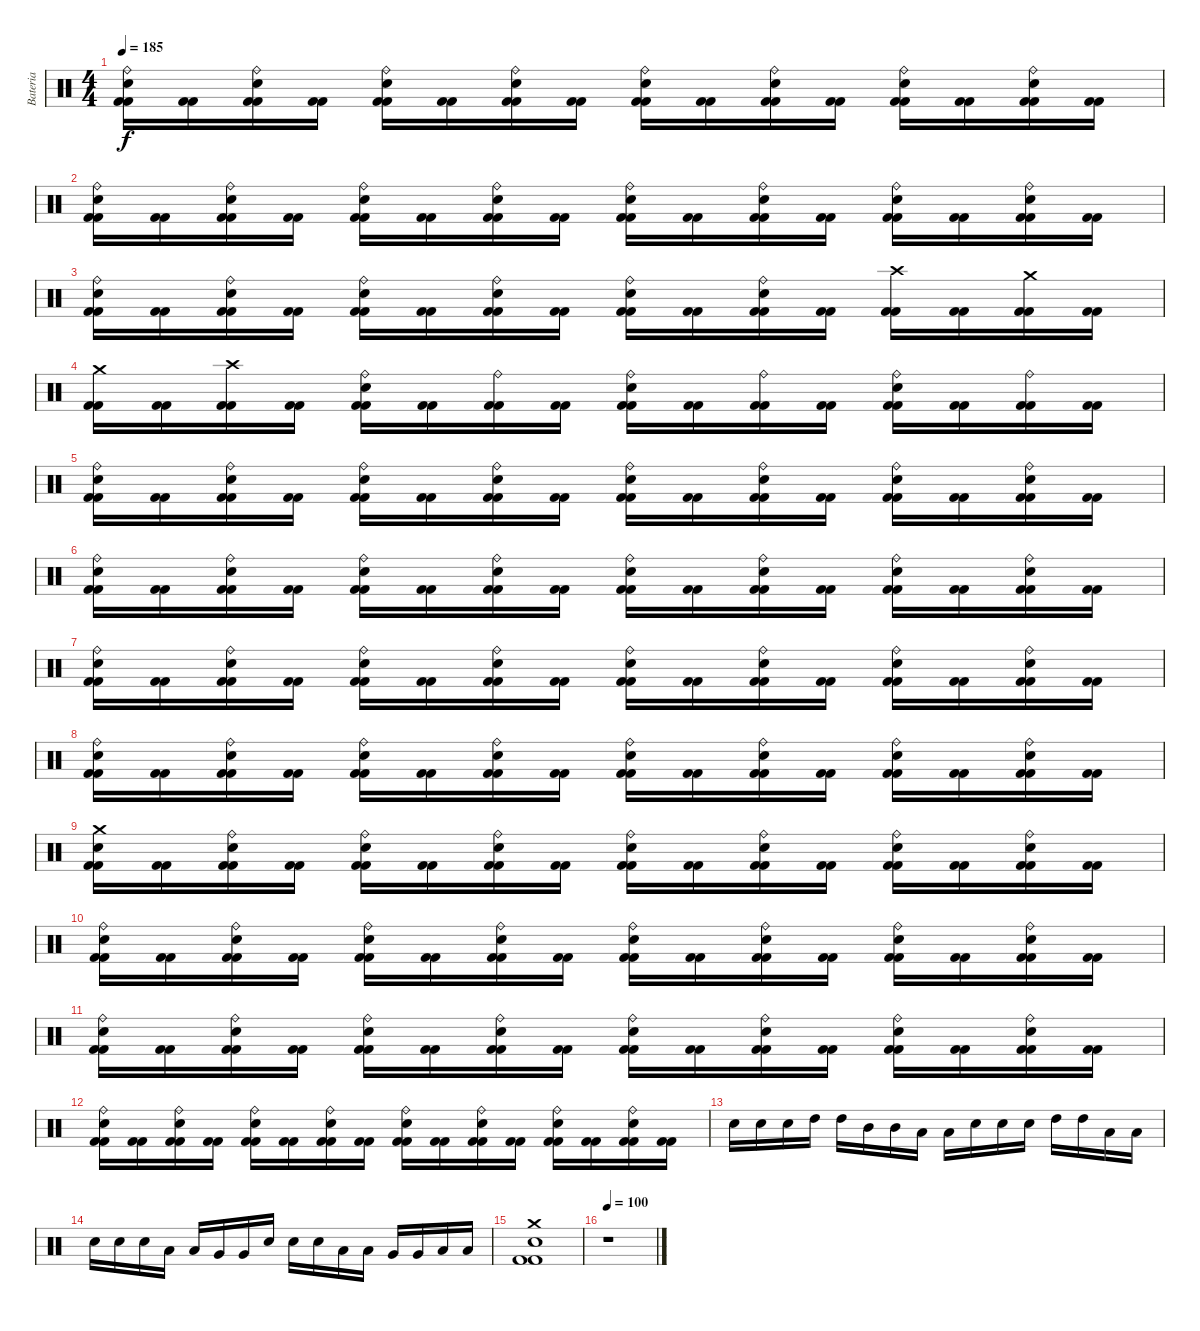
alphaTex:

\track ("Bateria" "Bateria") {instrument percussion}
\staff {score}
\articulation defaults
\ts (4 4)
\tempo 185
\clef neutral
\ks c
("Kick (hit) 2" "Kick (hit) 2" "Electric Snare (hit)" "Ride (bell)").16{dy f} ("Kick (hit) 2" "Kick (hit) 2").16 ("Kick (hit) 2" "Kick (hit) 2" "Ride (bell)" "Electric Snare (hit)").16 ("Kick (hit) 2" "Kick (hit) 2").16 ("Kick (hit) 2" "Kick (hit) 2" "Electric Snare (hit)" "Ride (bell)").16 ("Kick (hit) 2" "Kick (hit) 2").16 ("Kick (hit) 2" "Kick (hit) 2" "Ride (bell)" "Electric Snare (hit)").16 ("Kick (hit) 2" "Kick (hit) 2").16 ("Kick (hit) 2" "Kick (hit) 2" "Electric Snare (hit)" "Ride (bell)").16 ("Kick (hit) 2" "Kick (hit) 2").16 ("Kick (hit) 2" "Kick (hit) 2" "Ride (bell)" "Electric Snare (hit)").16 ("Kick (hit) 2" "Kick (hit) 2").16 ("Kick (hit) 2" "Kick (hit) 2" "Electric Snare (hit)" "Ride (bell)").16 ("Kick (hit) 2" "Kick (hit) 2").16 ("Kick (hit) 2" "Kick (hit) 2" "Ride (bell)" "Electric Snare (hit)").16 ("Kick (hit) 2" "Kick (hit) 2").16 |
("Kick (hit) 2" "Kick (hit) 2" "Electric Snare (hit)" "Ride (bell)").16 ("Kick (hit) 2" "Kick (hit) 2").16 ("Kick (hit) 2" "Kick (hit) 2" "Ride (bell)" "Electric Snare (hit)").16 ("Kick (hit) 2" "Kick (hit) 2").16 ("Kick (hit) 2" "Kick (hit) 2" "Electric Snare (hit)" "Ride (bell)").16 ("Kick (hit) 2" "Kick (hit) 2").16 ("Kick (hit) 2" "Kick (hit) 2" "Ride (bell)" "Electric Snare (hit)").16 ("Kick (hit) 2" "Kick (hit) 2").16 ("Kick (hit) 2" "Kick (hit) 2" "Electric Snare (hit)" "Ride (bell)").16 ("Kick (hit) 2" "Kick (hit) 2").16 ("Kick (hit) 2" "Kick (hit) 2" "Ride (bell)" "Electric Snare (hit)").16 ("Kick (hit) 2" "Kick (hit) 2").16 ("Kick (hit) 2" "Kick (hit) 2" "Electric Snare (hit)" "Ride (bell)").16 ("Kick (hit) 2" "Kick (hit) 2").16 ("Kick (hit) 2" "Kick (hit) 2" "Ride (bell)" "Electric Snare (hit)").16 ("Kick (hit) 2" "Kick (hit) 2").16 |
("Kick (hit) 2" "Kick (hit) 2" "Electric Snare (hit)" "Ride (bell)").16 ("Kick (hit) 2" "Kick (hit) 2").16 ("Kick (hit) 2" "Kick (hit) 2" "Ride (bell)" "Electric Snare (hit)").16 ("Kick (hit) 2" "Kick (hit) 2").16 ("Kick (hit) 2" "Kick (hit) 2" "Electric Snare (hit)" "Ride (bell)").16 ("Kick (hit) 2" "Kick (hit) 2").16 ("Kick (hit) 2" "Kick (hit) 2" "Ride (bell)" "Electric Snare (hit)").16 ("Kick (hit) 2" "Kick (hit) 2").16 ("Kick (hit) 2" "Kick (hit) 2" "Electric Snare (hit)" "Ride (bell)").16 ("Kick (hit) 2" "Kick (hit) 2").16 ("Kick (hit) 2" "Kick (hit) 2" "Ride (bell)" "Electric Snare (hit)").16 ("Kick (hit) 2" "Kick (hit) 2").16 ("Kick (hit) 2" "Kick (hit) 2" "Crash high (hit)").16 ("Kick (hit) 2" "Kick (hit) 2").16 ("Kick (hit) 2" "Kick (hit) 2" "Crash medium (hit)").16 ("Kick (hit) 2" "Kick (hit) 2").16 |
("Kick (hit) 2" "Kick (hit) 2" "Crash medium (hit)").16 ("Kick (hit) 2" "Kick (hit) 2").16 ("Kick (hit) 2" "Kick (hit) 2" "Crash high (hit)").16 ("Kick (hit) 2" "Kick (hit) 2").16 ("Kick (hit) 2" "Kick (hit) 2" "Electric Snare (hit)" "Ride (bell)").16 ("Kick (hit) 2" "Kick (hit) 2").16 ("Kick (hit) 2" "Kick (hit) 2" "Ride (bell)").16 ("Kick (hit) 2" "Kick (hit) 2").16 ("Kick (hit) 2" "Kick (hit) 2" "Electric Snare (hit)" "Ride (bell)").16 ("Kick (hit) 2" "Kick (hit) 2").16 ("Kick (hit) 2" "Kick (hit) 2" "Ride (bell)").16 ("Kick (hit) 2" "Kick (hit) 2").16 ("Kick (hit) 2" "Kick (hit) 2" "Electric Snare (hit)" "Ride (bell)").16 ("Kick (hit) 2" "Kick (hit) 2").16 ("Kick (hit) 2" "Kick (hit) 2" "Ride (bell)").16 ("Kick (hit) 2" "Kick (hit) 2").16 |
("Kick (hit) 2" "Kick (hit) 2" "Electric Snare (hit)" "Ride (bell)").16 ("Kick (hit) 2" "Kick (hit) 2").16 ("Kick (hit) 2" "Kick (hit) 2" "Ride (bell)" "Electric Snare (hit)").16 ("Kick (hit) 2" "Kick (hit) 2").16 ("Kick (hit) 2" "Kick (hit) 2" "Electric Snare (hit)" "Ride (bell)").16 ("Kick (hit) 2" "Kick (hit) 2").16 ("Kick (hit) 2" "Kick (hit) 2" "Ride (bell)" "Electric Snare (hit)").16 ("Kick (hit) 2" "Kick (hit) 2").16 ("Kick (hit) 2" "Kick (hit) 2" "Electric Snare (hit)" "Ride (bell)").16 ("Kick (hit) 2" "Kick (hit) 2").16 ("Kick (hit) 2" "Kick (hit) 2" "Ride (bell)" "Electric Snare (hit)").16 ("Kick (hit) 2" "Kick (hit) 2").16 ("Kick (hit) 2" "Kick (hit) 2" "Electric Snare (hit)" "Ride (bell)").16 ("Kick (hit) 2" "Kick (hit) 2").16 ("Kick (hit) 2" "Kick (hit) 2" "Ride (bell)" "Electric Snare (hit)").16 ("Kick (hit) 2" "Kick (hit) 2").16 |
("Kick (hit) 2" "Kick (hit) 2" "Electric Snare (hit)" "Ride (bell)").16 ("Kick (hit) 2" "Kick (hit) 2").16 ("Kick (hit) 2" "Kick (hit) 2" "Ride (bell)" "Electric Snare (hit)").16 ("Kick (hit) 2" "Kick (hit) 2").16 ("Kick (hit) 2" "Kick (hit) 2" "Electric Snare (hit)" "Ride (bell)").16 ("Kick (hit) 2" "Kick (hit) 2").16 ("Kick (hit) 2" "Kick (hit) 2" "Ride (bell)" "Electric Snare (hit)").16 ("Kick (hit) 2" "Kick (hit) 2").16 ("Kick (hit) 2" "Kick (hit) 2" "Electric Snare (hit)" "Ride (bell)").16 ("Kick (hit) 2" "Kick (hit) 2").16 ("Kick (hit) 2" "Kick (hit) 2" "Ride (bell)" "Electric Snare (hit)").16 ("Kick (hit) 2" "Kick (hit) 2").16 ("Kick (hit) 2" "Kick (hit) 2" "Electric Snare (hit)" "Ride (bell)").16 ("Kick (hit) 2" "Kick (hit) 2").16 ("Kick (hit) 2" "Kick (hit) 2" "Ride (bell)" "Electric Snare (hit)").16 ("Kick (hit) 2" "Kick (hit) 2").16 |
("Kick (hit) 2" "Kick (hit) 2" "Electric Snare (hit)" "Ride (bell)").16 ("Kick (hit) 2" "Kick (hit) 2").16 ("Kick (hit) 2" "Kick (hit) 2" "Ride (bell)" "Electric Snare (hit)").16 ("Kick (hit) 2" "Kick (hit) 2").16 ("Kick (hit) 2" "Kick (hit) 2" "Electric Snare (hit)" "Ride (bell)").16 ("Kick (hit) 2" "Kick (hit) 2").16 ("Kick (hit) 2" "Kick (hit) 2" "Ride (bell)" "Electric Snare (hit)").16 ("Kick (hit) 2" "Kick (hit) 2").16 ("Kick (hit) 2" "Kick (hit) 2" "Electric Snare (hit)" "Ride (bell)").16 ("Kick (hit) 2" "Kick (hit) 2").16 ("Kick (hit) 2" "Kick (hit) 2" "Ride (bell)" "Electric Snare (hit)").16 ("Kick (hit) 2" "Kick (hit) 2").16 ("Kick (hit) 2" "Kick (hit) 2" "Electric Snare (hit)" "Ride (bell)").16 ("Kick (hit) 2" "Kick (hit) 2").16 ("Kick (hit) 2" "Kick (hit) 2" "Ride (bell)" "Electric Snare (hit)").16 ("Kick (hit) 2" "Kick (hit) 2").16 |
("Kick (hit) 2" "Kick (hit) 2" "Electric Snare (hit)" "Ride (bell)").16 ("Kick (hit) 2" "Kick (hit) 2").16 ("Kick (hit) 2" "Kick (hit) 2" "Ride (bell)" "Electric Snare (hit)").16 ("Kick (hit) 2" "Kick (hit) 2").16 ("Kick (hit) 2" "Kick (hit) 2" "Electric Snare (hit)" "Ride (bell)").16 ("Kick (hit) 2" "Kick (hit) 2").16 ("Kick (hit) 2" "Kick (hit) 2" "Ride (bell)" "Electric Snare (hit)").16 ("Kick (hit) 2" "Kick (hit) 2").16 ("Kick (hit) 2" "Kick (hit) 2" "Electric Snare (hit)" "Ride (bell)").16 ("Kick (hit) 2" "Kick (hit) 2").16 ("Kick (hit) 2" "Kick (hit) 2" "Ride (bell)" "Electric Snare (hit)").16 ("Kick (hit) 2" "Kick (hit) 2").16 ("Kick (hit) 2" "Kick (hit) 2" "Electric Snare (hit)" "Ride (bell)").16 ("Kick (hit) 2" "Kick (hit) 2").16 ("Kick (hit) 2" "Kick (hit) 2" "Ride (bell)" "Electric Snare (hit)").16 ("Kick (hit) 2" "Kick (hit) 2").16 |
("Kick (hit) 2" "Kick (hit) 2" "Electric Snare (hit)" "Crash medium (hit)").16 ("Kick (hit) 2" "Kick (hit) 2").16 ("Kick (hit) 2" "Kick (hit) 2" "Ride (bell)" "Electric Snare (hit)").16 ("Kick (hit) 2" "Kick (hit) 2").16 ("Kick (hit) 2" "Kick (hit) 2" "Electric Snare (hit)" "Ride (bell)").16 ("Kick (hit) 2" "Kick (hit) 2").16 ("Kick (hit) 2" "Kick (hit) 2" "Ride (bell)" "Electric Snare (hit)").16 ("Kick (hit) 2" "Kick (hit) 2").16 ("Kick (hit) 2" "Kick (hit) 2" "Electric Snare (hit)" "Ride (bell)").16 ("Kick (hit) 2" "Kick (hit) 2").16 ("Kick (hit) 2" "Kick (hit) 2" "Ride (bell)" "Electric Snare (hit)").16 ("Kick (hit) 2" "Kick (hit) 2").16 ("Kick (hit) 2" "Kick (hit) 2" "Electric Snare (hit)" "Ride (bell)").16 ("Kick (hit) 2" "Kick (hit) 2").16 ("Kick (hit) 2" "Kick (hit) 2" "Ride (bell)" "Electric Snare (hit)").16 ("Kick (hit) 2" "Kick (hit) 2").16 |
("Kick (hit) 2" "Kick (hit) 2" "Electric Snare (hit)" "Ride (bell)").16 ("Kick (hit) 2" "Kick (hit) 2").16 ("Kick (hit) 2" "Kick (hit) 2" "Ride (bell)" "Electric Snare (hit)").16 ("Kick (hit) 2" "Kick (hit) 2").16 ("Kick (hit) 2" "Kick (hit) 2" "Electric Snare (hit)" "Ride (bell)").16 ("Kick (hit) 2" "Kick (hit) 2").16 ("Kick (hit) 2" "Kick (hit) 2" "Ride (bell)" "Electric Snare (hit)").16 ("Kick (hit) 2" "Kick (hit) 2").16 ("Kick (hit) 2" "Kick (hit) 2" "Electric Snare (hit)" "Ride (bell)").16 ("Kick (hit) 2" "Kick (hit) 2").16 ("Kick (hit) 2" "Kick (hit) 2" "Ride (bell)" "Electric Snare (hit)").16 ("Kick (hit) 2" "Kick (hit) 2").16 ("Kick (hit) 2" "Kick (hit) 2" "Electric Snare (hit)" "Ride (bell)").16 ("Kick (hit) 2" "Kick (hit) 2").16 ("Kick (hit) 2" "Kick (hit) 2" "Ride (bell)" "Electric Snare (hit)").16 ("Kick (hit) 2" "Kick (hit) 2").16 |
("Kick (hit) 2" "Kick (hit) 2" "Electric Snare (hit)" "Ride (bell)").16 ("Kick (hit) 2" "Kick (hit) 2").16 ("Kick (hit) 2" "Kick (hit) 2" "Ride (bell)" "Electric Snare (hit)").16 ("Kick (hit) 2" "Kick (hit) 2").16 ("Kick (hit) 2" "Kick (hit) 2" "Electric Snare (hit)" "Ride (bell)").16 ("Kick (hit) 2" "Kick (hit) 2").16 ("Kick (hit) 2" "Kick (hit) 2" "Ride (bell)" "Electric Snare (hit)").16 ("Kick (hit) 2" "Kick (hit) 2").16 ("Kick (hit) 2" "Kick (hit) 2" "Electric Snare (hit)" "Ride (bell)").16 ("Kick (hit) 2" "Kick (hit) 2").16 ("Kick (hit) 2" "Kick (hit) 2" "Ride (bell)" "Electric Snare (hit)").16 ("Kick (hit) 2" "Kick (hit) 2").16 ("Kick (hit) 2" "Kick (hit) 2" "Electric Snare (hit)" "Ride (bell)").16 ("Kick (hit) 2" "Kick (hit) 2").16 ("Kick (hit) 2" "Kick (hit) 2" "Ride (bell)" "Electric Snare (hit)").16 ("Kick (hit) 2" "Kick (hit) 2").16 |
("Kick (hit) 2" "Kick (hit) 2" "Electric Snare (hit)" "Ride (bell)").16 ("Kick (hit) 2" "Kick (hit) 2").16 ("Kick (hit) 2" "Kick (hit) 2" "Ride (bell)" "Electric Snare (hit)").16 ("Kick (hit) 2" "Kick (hit) 2").16 ("Kick (hit) 2" "Kick (hit) 2" "Electric Snare (hit)" "Ride (bell)").16 ("Kick (hit) 2" "Kick (hit) 2").16 ("Kick (hit) 2" "Kick (hit) 2" "Ride (bell)" "Electric Snare (hit)").16 ("Kick (hit) 2" "Kick (hit) 2").16 ("Kick (hit) 2" "Kick (hit) 2" "Electric Snare (hit)" "Ride (bell)").16 ("Kick (hit) 2" "Kick (hit) 2").16 ("Kick (hit) 2" "Kick (hit) 2" "Ride (bell)" "Electric Snare (hit)").16 ("Kick (hit) 2" "Kick (hit) 2").16 ("Kick (hit) 2" "Kick (hit) 2" "Electric Snare (hit)" "Ride (bell)").16 ("Kick (hit) 2" "Kick (hit) 2").16 ("Kick (hit) 2" "Kick (hit) 2" "Ride (bell)" "Electric Snare (hit)").16 ("Kick (hit) 2" "Kick (hit) 2").16 |
"Electric Snare (hit)".16 "Electric Snare (hit)".16 "Electric Snare (hit)".16 "High Tom (hit)".16 "High Tom (hit)".16 "Mid Tom (hit)".16 "Mid Tom (hit)".16 "Low Tom (hit)".16 "Low Tom (hit)".16 "Electric Snare (hit)".16 "Electric Snare (hit)".16 "Electric Snare (hit)".16 "High Tom (hit)".16 "High Tom (hit)".16 "Low Tom (hit)".16 "Low Tom (hit)".16 |
"Electric Snare (hit)".16 "Electric Snare (hit)".16 "Electric Snare (hit)".16 "Low Tom (hit)".16 "Low Tom (hit)".16 "Very Low Tom (hit)".16 "Very Low Tom (hit)".16 "Electric Snare (hit)".16 "Electric Snare (hit)".16 "Electric Snare (hit)".16 "Low Floor Tom (hit)".16 "Low Floor Tom (hit)".16 "Very Low Tom (hit)".16 "Very Low Tom (hit)".16 "Low Tom (hit)".16 "Low Tom (hit)".16 |
("Kick (hit) 2" "Kick (hit) 2" "Electric Snare (hit)" "Crash medium (hit)").1 |
\tempo 100
r.1
